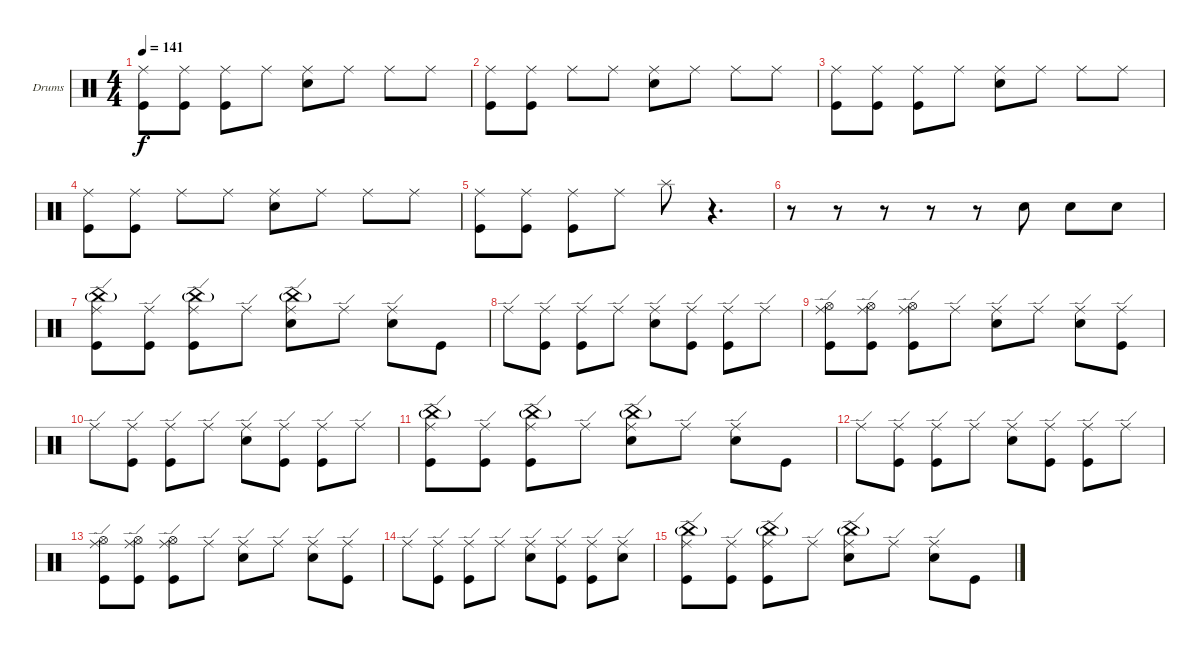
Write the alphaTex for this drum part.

\bracketExtendMode groupsimilarinstruments
\firstSystemTrackNameOrientation horizontal
\otherSystemsTrackNameOrientation horizontal
\track ("Drumkit" "Drums") {instrument percussion}
\staff {score}
\articulation defaults
\ts (4 4)
\tempo 141
\clef neutral
\ks c
("Ride (middle)" "Kick (hit)").8{dy f} ("Ride (middle)" "Kick (hit)").8 ("Ride (middle)" "Kick (hit)").8 "Ride (middle)".8 ("Ride (middle)" "Snare (hit) 2").8 "Ride (middle)".8 "Ride (middle)".8 "Ride (middle)".8 |
("Ride (middle)" "Kick (hit)").8 ("Ride (middle)" "Kick (hit)").8 "Ride (middle)".8 "Ride (middle)".8 ("Ride (middle)" "Snare (hit) 2").8 "Ride (middle)".8 "Ride (middle)".8 "Ride (middle)".8 |
("Ride (middle)" "Kick (hit)").8 ("Ride (middle)" "Kick (hit)").8 ("Ride (middle)" "Kick (hit)").8 "Ride (middle)".8 ("Ride (middle)" "Snare (hit) 2").8 "Ride (middle)".8 "Ride (middle)".8 "Ride (middle)".8 |
("Ride (middle)" "Kick (hit)").8 ("Ride (middle)" "Kick (hit)").8 "Ride (middle)".8 "Ride (middle)".8 ("Ride (middle)" "Snare (hit) 2").8 "Ride (middle)".8 "Ride (middle)".8 "Ride (middle)".8 |
("Ride (middle)" "Kick (hit)").8 ("Ride (middle)" "Kick (hit)").8 ("Ride (middle)" "Kick (hit)").8 "Ride (middle)".8 "Splash (hit)".8 r.4{d} |
r.8 r.8 r.8 r.8 r.8 "Snare (hit) 2".8 "Snare (hit) 2".8 "Snare (hit) 2".8 |
("Kick (hit)" "Ride (edge)" "China (hit)"{g}).8 ("Kick (hit)" "Ride (edge)").8 ("Kick (hit)" "Ride (edge)" "China (hit)"{g}).8 "Ride (edge)".8 ("Snare (hit) 2" "Ride (edge)" "China (hit)"{g}).8 "Ride (edge)".8 ("Ride (edge)" "Snare (hit) 2").8 "Kick (hit)".8 |
"Ride (edge)".8 ("Kick (hit)" "Ride (edge)").8 ("Ride (edge)" "Kick (hit)").8 "Ride (edge)".8 ("Ride (edge)" "Snare (hit) 2").8 ("Kick (hit)" "Ride (edge)").8 ("Ride (edge)" "Kick (hit)").8 "Ride (edge)".8 |
("Hi-Hat (open)" "Kick (hit)" "Ride (edge)").8 ("Hi-Hat (open)" "Kick (hit)" "Ride (edge)").8 ("Hi-Hat (open)" "Kick (hit)" "Ride (edge)").8 "Ride (edge)".8 ("Ride (edge)" "Snare (hit) 2").8 "Ride (edge)".8 ("Ride (edge)" "Snare (hit) 2").8 ("Ride (edge)" "Kick (hit)").8 |
"Ride (edge)".8 ("Kick (hit)" "Ride (edge)").8 ("Ride (edge)" "Kick (hit)").8 "Ride (edge)".8 ("Ride (edge)" "Snare (hit) 2").8 ("Kick (hit)" "Ride (edge)").8 ("Ride (edge)" "Kick (hit)").8 "Ride (edge)".8 |
("Kick (hit)" "Ride (edge)" "China (hit)"{g}).8 ("Kick (hit)" "Ride (edge)").8 ("Kick (hit)" "Ride (edge)" "China (hit)"{g}).8 "Ride (edge)".8 ("Snare (hit) 2" "Ride (edge)" "China (hit)"{g}).8 "Ride (edge)".8 ("Ride (edge)" "Snare (hit) 2").8 "Kick (hit)".8 |
"Ride (edge)".8 ("Kick (hit)" "Ride (edge)").8 ("Ride (edge)" "Kick (hit)").8 "Ride (edge)".8 ("Ride (edge)" "Snare (hit) 2").8 ("Kick (hit)" "Ride (edge)").8 ("Ride (edge)" "Kick (hit)").8 "Ride (edge)".8 |
("Hi-Hat (open)" "Kick (hit)" "Ride (edge)").8 ("Hi-Hat (open)" "Kick (hit)" "Ride (edge)").8 ("Hi-Hat (open)" "Kick (hit)" "Ride (edge)").8 "Ride (edge)".8 ("Ride (edge)" "Snare (hit) 2").8 "Ride (edge)".8 ("Ride (edge)" "Snare (hit) 2").8 ("Ride (edge)" "Kick (hit)").8 |
"Ride (edge)".8 ("Kick (hit)" "Ride (edge)").8 ("Ride (edge)" "Kick (hit)").8 "Ride (edge)".8 ("Ride (edge)" "Snare (hit) 2").8 ("Kick (hit)" "Ride (edge)").8 ("Ride (edge)" "Kick (hit)").8 ("Ride (edge)" "Snare (hit) 2").8 |
("Kick (hit)" "Ride (edge)" "China (hit)"{g}).8 ("Kick (hit)" "Ride (edge)").8 ("Kick (hit)" "Ride (edge)" "China (hit)"{g}).8 "Ride (edge)".8 ("Snare (hit) 2" "Ride (edge)" "China (hit)"{g}).8 "Ride (edge)".8 ("Ride (edge)" "Snare (hit) 2").8 "Kick (hit)".8
